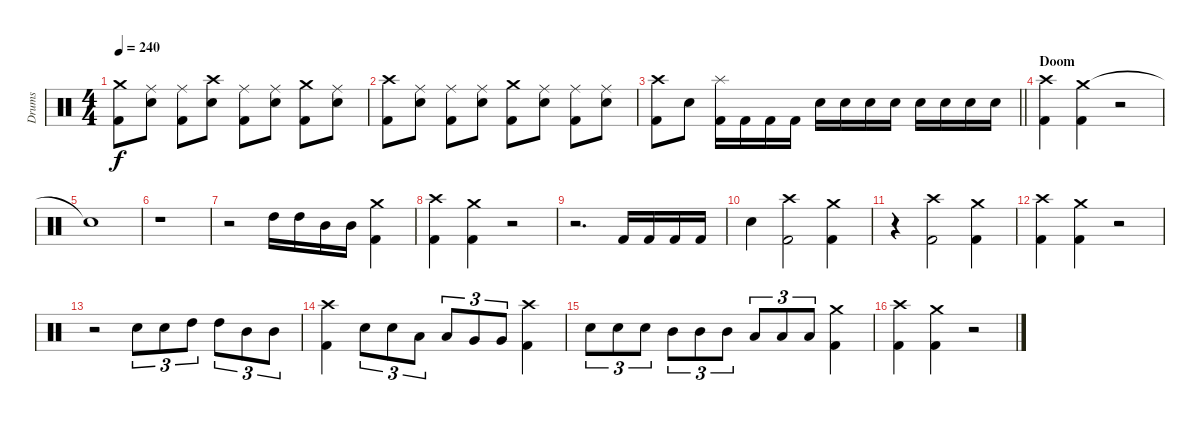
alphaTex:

\track ("Drums" "Drums") {instrument percussion}
\staff {score}
\articulation defaults
\ts (4 4)
\tempo 240
\clef neutral
\ks c
("Crash medium (hit)" "Kick (hit) 2").8{dy f} ("Ride (middle)" "Snare (hit) 2").8 ("Ride (middle)" "Kick (hit) 2").8 ("Crash high (hit)" "Snare (hit) 2").8 ("Ride (middle)" "Kick (hit) 2").8 ("Ride (middle)" "Snare (hit) 2").8 ("Crash medium (hit)" "Kick (hit) 2").8 ("Ride (middle)" "Snare (hit) 2").8 |
("Crash high (hit)" "Kick (hit) 2").8 ("Ride (middle)" "Snare (hit) 2").8 ("Ride (middle)" "Kick (hit) 2").8 ("Ride (middle)" "Snare (hit) 2").8 ("Crash medium (hit)" "Kick (hit) 2").8 ("Ride (middle)" "Snare (hit) 2").8 ("Ride (middle)" "Kick (hit) 2").8 ("Ride (middle)" "Snare (hit) 2").8 |
\barLineRight lightlight
("Crash high (hit)" "Kick (hit) 2").8 "Snare (hit) 2".8 ("Splash (hit)" "Kick (hit) 2").16 "Kick (hit) 2".16 "Kick (hit) 2".16 "Kick (hit) 2".16 "Snare (hit) 2".16 "Snare (hit) 2".16 "Snare (hit) 2".16 "Snare (hit) 2".16 "Snare (hit) 2".16 "Snare (hit) 2".16 "Snare (hit) 2".16 "Snare (hit) 2".16 |
\section ("" "Doom")
("Crash high (hit)" "Kick (hit) 2").4 ("Crash medium (hit)" "Kick (hit) 2").4 r.2 |
"Snare (hit)"{t}.1 |
r.1 |
r.2 "High Tom (hit)".16 "High Tom (hit)".16 "Mid Tom (hit)".16 "Mid Tom (hit)".16 ("Crash medium (hit)" "Kick (hit) 2").4 |
("Crash high (hit)" "Kick (hit) 2").4 ("Crash medium (hit)" "Kick (hit) 2").4 r.2 |
r.2{d} "Kick (hit) 2".16 "Kick (hit) 2".16 "Kick (hit) 2".16 "Kick (hit) 2".16 |
"Snare (hit) 2".4 ("Crash high (hit)" "Kick (hit) 2").2 ("Crash medium (hit)" "Kick (hit) 2").4 |
r.4 ("Crash high (hit)" "Kick (hit) 2").2 ("Crash medium (hit)" "Kick (hit) 2").4 |
("Crash high (hit)" "Kick (hit) 2").4 ("Crash medium (hit)" "Kick (hit) 2").4 r.2 |
r.2 "Snare (hit) 2".8{tu (3 2)} "Snare (hit) 2".8{tu (3 2)} "High Tom (hit)".8{tu (3 2)} "High Tom (hit)".8{tu (3 2)} "Mid Tom (hit)".8{tu (3 2)} "Mid Tom (hit)".8{tu (3 2)} |
("Crash high (hit)" "Kick (hit) 2").4 "Snare (hit) 2".8{tu (3 2)} "Snare (hit) 2".8{tu (3 2)} "Low Tom (hit)".8{tu (3 2)} "Low Tom (hit)".8{tu (3 2)} "Very Low Tom (hit)".8{tu (3 2)} "Very Low Tom (hit)".8{tu (3 2)} ("Crash high (hit)" "Kick (hit) 2").4 |
"Snare (hit) 2".8{tu (3 2)} "Snare (hit) 2".8{tu (3 2)} "Snare (hit) 2".8{tu (3 2)} "Mid Tom (hit)".8{tu (3 2)} "Mid Tom (hit)".8{tu (3 2)} "Mid Tom (hit)".8{tu (3 2)} "Low Tom (hit)".8{tu (3 2)} "Low Tom (hit)".8{tu (3 2)} "Low Tom (hit)".8{tu (3 2)} ("Crash medium (hit)" "Kick (hit) 2").4 |
("Crash high (hit)" "Kick (hit) 2").4 ("Crash medium (hit)" "Kick (hit) 2").4 r.2
